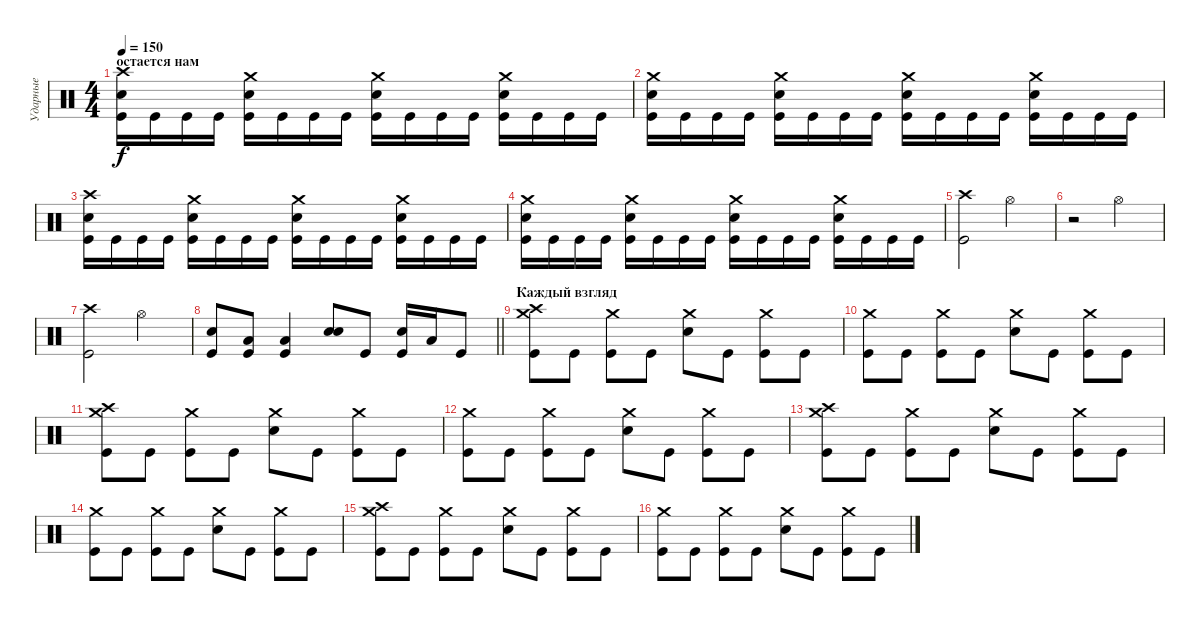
\track ("Ударные" "Ударные") {instrument percussion}
\staff {score}
\articulation defaults
\ts (4 4)
\section ("" "остается нам")
\tempo 150
\clef neutral
\ks c
("Crash high (hit)" "Electric Snare (hit)" "Kick (hit)").16{dy f} "Kick (hit)".16 "Kick (hit)".16 "Kick (hit)".16 ("Crash medium (hit)" "Electric Snare (hit)" "Kick (hit)").16 "Kick (hit)".16 "Kick (hit)".16 "Kick (hit)".16 ("Crash medium (hit)" "Electric Snare (hit)" "Kick (hit)").16 "Kick (hit)".16 "Kick (hit)".16 "Kick (hit)".16 ("Crash medium (hit)" "Electric Snare (hit)" "Kick (hit)").16 "Kick (hit)".16 "Kick (hit)".16 "Kick (hit)".16 |
("Crash medium (hit)" "Electric Snare (hit)" "Kick (hit)").16 "Kick (hit)".16 "Kick (hit)".16 "Kick (hit)".16 ("Crash medium (hit)" "Electric Snare (hit)" "Kick (hit)").16 "Kick (hit)".16 "Kick (hit)".16 "Kick (hit)".16 ("Crash medium (hit)" "Electric Snare (hit)" "Kick (hit)").16 "Kick (hit)".16 "Kick (hit)".16 "Kick (hit)".16 ("Crash medium (hit)" "Electric Snare (hit)" "Kick (hit)").16 "Kick (hit)".16 "Kick (hit)".16 "Kick (hit)".16 |
("Crash high (hit)" "Electric Snare (hit)" "Kick (hit)").16 "Kick (hit)".16 "Kick (hit)".16 "Kick (hit)".16 ("Crash medium (hit)" "Electric Snare (hit)" "Kick (hit)").16 "Kick (hit)".16 "Kick (hit)".16 "Kick (hit)".16 ("Crash medium (hit)" "Electric Snare (hit)" "Kick (hit)").16 "Kick (hit)".16 "Kick (hit)".16 "Kick (hit)".16 ("Crash medium (hit)" "Electric Snare (hit)" "Kick (hit)").16 "Kick (hit)".16 "Kick (hit)".16 "Kick (hit)".16 |
("Crash medium (hit)" "Electric Snare (hit)" "Kick (hit)").16 "Kick (hit)".16 "Kick (hit)".16 "Kick (hit)".16 ("Crash medium (hit)" "Electric Snare (hit)" "Kick (hit)").16 "Kick (hit)".16 "Kick (hit)".16 "Kick (hit)".16 ("Crash medium (hit)" "Electric Snare (hit)" "Kick (hit)").16 "Kick (hit)".16 "Kick (hit)".16 "Kick (hit)".16 ("Crash medium (hit)" "Electric Snare (hit)" "Kick (hit)").16 "Kick (hit)".16 "Kick (hit)".16 "Kick (hit)".16 |
("Crash high (hit)" "Kick (hit)").2 "Hi-Hat (open)".2 |
r.2 "Hi-Hat (open)".2 |
("Crash high (hit)" "Kick (hit)").2 "Hi-Hat (open)".2 |
\barLineRight lightlight
("Kick (hit)" "Electric Snare (hit)").8 ("Low Tom (hit)" "Kick (hit)").8 ("Low Floor Tom (hit)" "Kick (hit)").4 ("Electric Snare (hit)" "Electric Snare (hit)").8{bd 240} "Kick (hit)".8 ("Electric Snare (hit)" "Kick (hit)").16 "Low Tom (hit)".16 "Kick (hit)".8 |
\section ("" "Каждый взгляд")
("Crash high (hit)" "Crash medium (hit)" "Kick (hit)").8 "Kick (hit)".8 ("Crash medium (hit)" "Kick (hit)").8 "Kick (hit)".8 ("Crash medium (hit)" "Electric Snare (hit)").8 "Kick (hit)".8 ("Crash medium (hit)" "Kick (hit)").8 "Kick (hit)".8 |
("Crash medium (hit)" "Kick (hit)").8 "Kick (hit)".8 ("Crash medium (hit)" "Kick (hit)").8 "Kick (hit)".8 ("Crash medium (hit)" "Electric Snare (hit)").8 "Kick (hit)".8 ("Crash medium (hit)" "Kick (hit)").8 "Kick (hit)".8 |
("Crash high (hit)" "Crash medium (hit)" "Kick (hit)").8 "Kick (hit)".8 ("Crash medium (hit)" "Kick (hit)").8 "Kick (hit)".8 ("Crash medium (hit)" "Electric Snare (hit)").8 "Kick (hit)".8 ("Crash medium (hit)" "Kick (hit)").8 "Kick (hit)".8 |
("Crash medium (hit)" "Kick (hit)").8 "Kick (hit)".8 ("Crash medium (hit)" "Kick (hit)").8 "Kick (hit)".8 ("Crash medium (hit)" "Electric Snare (hit)").8 "Kick (hit)".8 ("Crash medium (hit)" "Kick (hit)").8 "Kick (hit)".8 |
("Crash high (hit)" "Crash medium (hit)" "Kick (hit)").8 "Kick (hit)".8 ("Crash medium (hit)" "Kick (hit)").8 "Kick (hit)".8 ("Crash medium (hit)" "Electric Snare (hit)").8 "Kick (hit)".8 ("Crash medium (hit)" "Kick (hit)").8 "Kick (hit)".8 |
("Crash medium (hit)" "Kick (hit)").8 "Kick (hit)".8 ("Crash medium (hit)" "Kick (hit)").8 "Kick (hit)".8 ("Crash medium (hit)" "Electric Snare (hit)").8 "Kick (hit)".8 ("Crash medium (hit)" "Kick (hit)").8 "Kick (hit)".8 |
("Crash high (hit)" "Crash medium (hit)" "Kick (hit)").8 "Kick (hit)".8 ("Crash medium (hit)" "Kick (hit)").8 "Kick (hit)".8 ("Crash medium (hit)" "Electric Snare (hit)").8 "Kick (hit)".8 ("Crash medium (hit)" "Kick (hit)").8 "Kick (hit)".8 |
("Crash medium (hit)" "Kick (hit)").8 "Kick (hit)".8 ("Crash medium (hit)" "Kick (hit)").8 "Kick (hit)".8 ("Crash medium (hit)" "Electric Snare (hit)").8 "Kick (hit)".8 ("Crash medium (hit)" "Kick (hit)").8 "Kick (hit)".8
